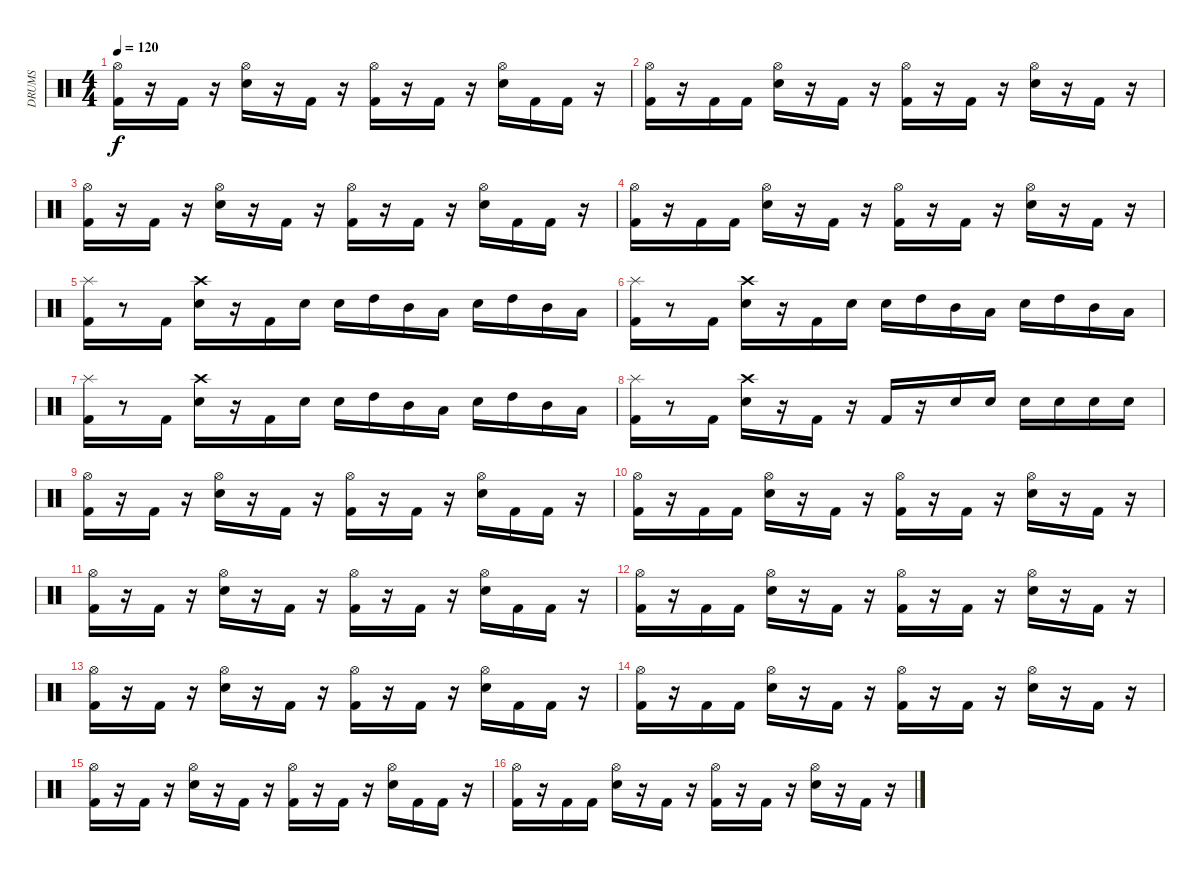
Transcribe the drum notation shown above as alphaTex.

\track ("DRUMS" "DRUMS") {instrument percussion}
\staff {score}
\articulation defaults
\ts (4 4)
\tempo 120
\clef neutral
\ks c
("Hi-Hat (open)" "Kick (hit) 2").16{dy f} r.16 "Kick (hit) 2".16 r.16 ("Hi-Hat (open)" "Electric Snare (hit)").16 r.16 "Kick (hit) 2".16 r.16 ("Hi-Hat (open)" "Kick (hit) 2").16 r.16 "Kick (hit) 2".16 r.16 ("Hi-Hat (open)" "Electric Snare (hit)").16 "Kick (hit) 2".16 "Kick (hit) 2".16 r.16 |
("Hi-Hat (open)" "Kick (hit) 2").16 r.16 "Kick (hit) 2".16 "Kick (hit) 2".16 ("Hi-Hat (open)" "Electric Snare (hit)").16 r.16 "Kick (hit) 2".16 r.16 ("Hi-Hat (open)" "Kick (hit) 2").16 r.16 "Kick (hit) 2".16 r.16 ("Hi-Hat (open)" "Electric Snare (hit)").16 r.16 "Kick (hit) 2".16 r.16 |
("Hi-Hat (open)" "Kick (hit) 2").16 r.16 "Kick (hit) 2".16 r.16 ("Hi-Hat (open)" "Electric Snare (hit)").16 r.16 "Kick (hit) 2".16 r.16 ("Hi-Hat (open)" "Kick (hit) 2").16 r.16 "Kick (hit) 2".16 r.16 ("Hi-Hat (open)" "Electric Snare (hit)").16 "Kick (hit) 2".16 "Kick (hit) 2".16 r.16 |
("Hi-Hat (open)" "Kick (hit) 2").16 r.16 "Kick (hit) 2".16 "Kick (hit) 2".16 ("Hi-Hat (open)" "Electric Snare (hit)").16 r.16 "Kick (hit) 2".16 r.16 ("Hi-Hat (open)" "Kick (hit) 2").16 r.16 "Kick (hit) 2".16 r.16 ("Hi-Hat (open)" "Electric Snare (hit)").16 r.16 "Kick (hit) 2".16 r.16 |
("Splash (hit)" "Kick (hit) 2").16 r.8 "Kick (hit) 2".16 ("Crash high (hit)" "Electric Snare (hit)").16 r.16 "Kick (hit) 2".16 "Electric Snare (hit)".16 "Electric Snare (hit)".16 "High Tom (hit)".16 "Mid Tom (hit)".16 "Low Tom (hit)".16 "Electric Snare (hit)".16 "High Tom (hit)".16 "Mid Tom (hit)".16 "Low Tom (hit)".16 |
("Splash (hit)" "Kick (hit) 2").16 r.8 "Kick (hit) 2".16 ("Crash high (hit)" "Electric Snare (hit)").16 r.16 "Kick (hit) 2".16 "Electric Snare (hit)".16 "Electric Snare (hit)".16 "High Tom (hit)".16 "Mid Tom (hit)".16 "Low Tom (hit)".16 "Electric Snare (hit)".16 "High Tom (hit)".16 "Mid Tom (hit)".16 "Low Tom (hit)".16 |
("Splash (hit)" "Kick (hit) 2").16 r.8 "Kick (hit) 2".16 ("Crash high (hit)" "Electric Snare (hit)").16 r.16 "Kick (hit) 2".16 "Electric Snare (hit)".16 "Electric Snare (hit)".16 "High Tom (hit)".16 "Mid Tom (hit)".16 "Low Tom (hit)".16 "Electric Snare (hit)".16 "High Tom (hit)".16 "Mid Tom (hit)".16 "Low Tom (hit)".16 |
("Splash (hit)" "Kick (hit) 2").16 r.8 "Kick (hit) 2".16 ("Crash high (hit)" "Electric Snare (hit)").16 r.16 "Kick (hit) 2".16 r.16 "Kick (hit) 2".16 r.16 "Electric Snare (hit)".16 "Electric Snare (hit)".16 "Electric Snare (hit)".16 "Electric Snare (hit)".16 "Electric Snare (hit)".16 "Electric Snare (hit)".16 |
("Hi-Hat (open)" "Kick (hit) 2").16 r.16 "Kick (hit) 2".16 r.16 ("Hi-Hat (open)" "Electric Snare (hit)").16 r.16 "Kick (hit) 2".16 r.16 ("Hi-Hat (open)" "Kick (hit) 2").16 r.16 "Kick (hit) 2".16 r.16 ("Hi-Hat (open)" "Electric Snare (hit)").16 "Kick (hit) 2".16 "Kick (hit) 2".16 r.16 |
("Hi-Hat (open)" "Kick (hit) 2").16 r.16 "Kick (hit) 2".16 "Kick (hit) 2".16 ("Hi-Hat (open)" "Electric Snare (hit)").16 r.16 "Kick (hit) 2".16 r.16 ("Hi-Hat (open)" "Kick (hit) 2").16 r.16 "Kick (hit) 2".16 r.16 ("Hi-Hat (open)" "Electric Snare (hit)").16 r.16 "Kick (hit) 2".16 r.16 |
("Hi-Hat (open)" "Kick (hit) 2").16 r.16 "Kick (hit) 2".16 r.16 ("Hi-Hat (open)" "Electric Snare (hit)").16 r.16 "Kick (hit) 2".16 r.16 ("Hi-Hat (open)" "Kick (hit) 2").16 r.16 "Kick (hit) 2".16 r.16 ("Hi-Hat (open)" "Electric Snare (hit)").16 "Kick (hit) 2".16 "Kick (hit) 2".16 r.16 |
("Hi-Hat (open)" "Kick (hit) 2").16 r.16 "Kick (hit) 2".16 "Kick (hit) 2".16 ("Hi-Hat (open)" "Electric Snare (hit)").16 r.16 "Kick (hit) 2".16 r.16 ("Hi-Hat (open)" "Kick (hit) 2").16 r.16 "Kick (hit) 2".16 r.16 ("Hi-Hat (open)" "Electric Snare (hit)").16 r.16 "Kick (hit) 2".16 r.16 |
("Hi-Hat (open)" "Kick (hit) 2").16 r.16 "Kick (hit) 2".16 r.16 ("Hi-Hat (open)" "Electric Snare (hit)").16 r.16 "Kick (hit) 2".16 r.16 ("Hi-Hat (open)" "Kick (hit) 2").16 r.16 "Kick (hit) 2".16 r.16 ("Hi-Hat (open)" "Electric Snare (hit)").16 "Kick (hit) 2".16 "Kick (hit) 2".16 r.16 |
("Hi-Hat (open)" "Kick (hit) 2").16 r.16 "Kick (hit) 2".16 "Kick (hit) 2".16 ("Hi-Hat (open)" "Electric Snare (hit)").16 r.16 "Kick (hit) 2".16 r.16 ("Hi-Hat (open)" "Kick (hit) 2").16 r.16 "Kick (hit) 2".16 r.16 ("Hi-Hat (open)" "Electric Snare (hit)").16 r.16 "Kick (hit) 2".16 r.16 |
("Hi-Hat (open)" "Kick (hit) 2").16 r.16 "Kick (hit) 2".16 r.16 ("Hi-Hat (open)" "Electric Snare (hit)").16 r.16 "Kick (hit) 2".16 r.16 ("Hi-Hat (open)" "Kick (hit) 2").16 r.16 "Kick (hit) 2".16 r.16 ("Hi-Hat (open)" "Electric Snare (hit)").16 "Kick (hit) 2".16 "Kick (hit) 2".16 r.16 |
("Hi-Hat (open)" "Kick (hit) 2").16 r.16 "Kick (hit) 2".16 "Kick (hit) 2".16 ("Hi-Hat (open)" "Electric Snare (hit)").16 r.16 "Kick (hit) 2".16 r.16 ("Hi-Hat (open)" "Kick (hit) 2").16 r.16 "Kick (hit) 2".16 r.16 ("Hi-Hat (open)" "Electric Snare (hit)").16 r.16 "Kick (hit) 2".16 r.16
